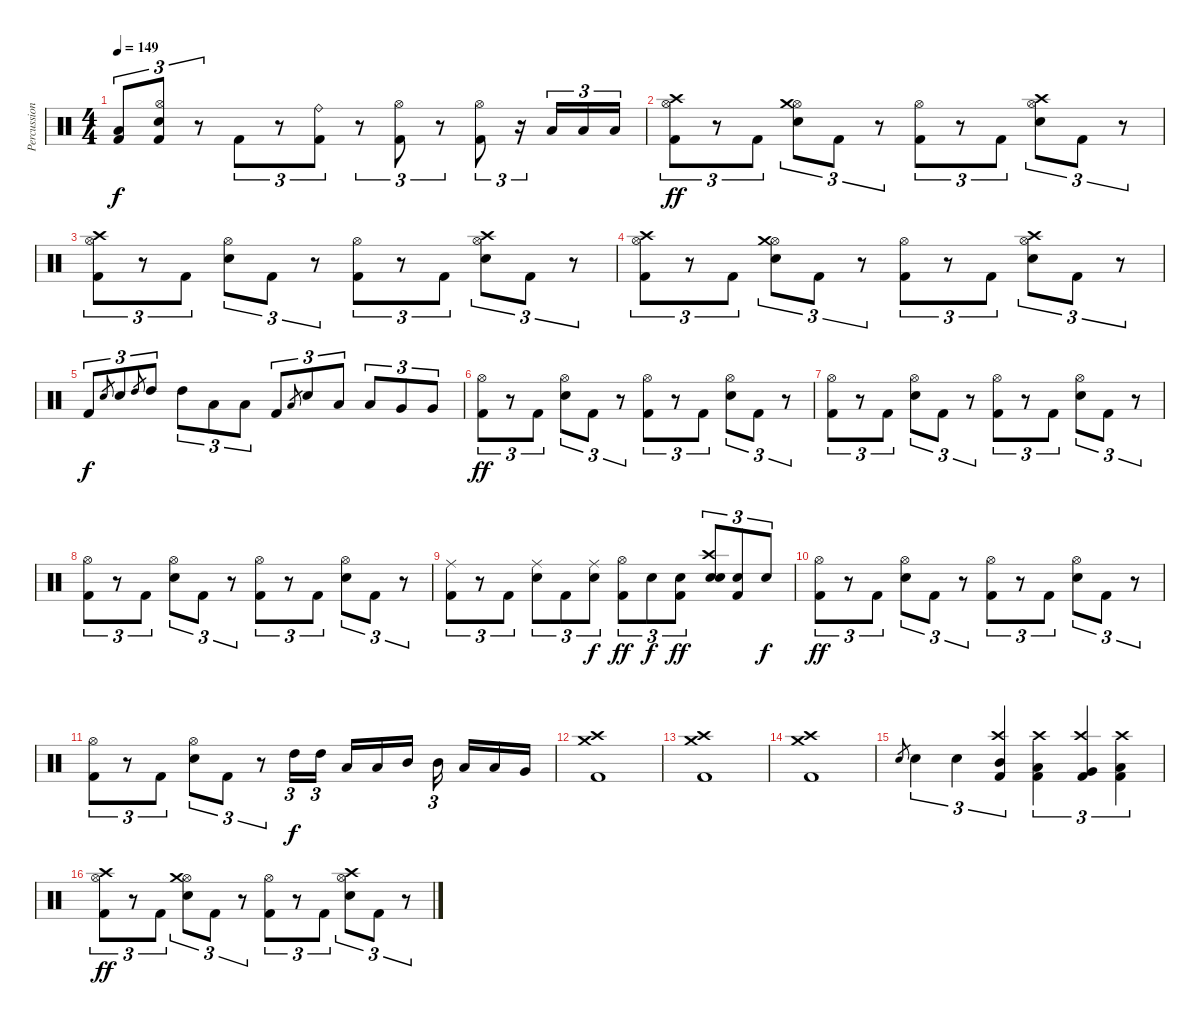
\track ("Percussion" "Percussion") {instrument percussion}
\staff {score}
\articulation defaults
\ts (4 4)
\tempo 149
\clef neutral
\ks c
("Kick (hit) 2" "Low Tom (hit)").8{tu (3 2) dy f} ("Hi-Hat (open)" "Kick (hit) 2" "Snare (hit) 2").8{tu (3 2)} r.8{tu (3 2)} "Kick (hit) 2".8{tu (3 2)} r.8{tu (3 2)} ("Ride (bell)" "Kick (hit) 2").8{tu (3 2)} r.8{tu (3 2)} ("Hi-Hat (open)" "Kick (hit) 2").8{tu (3 2)} r.8{tu (3 2)} ("Hi-Hat (open)" "Kick (hit) 2").8{tu (3 2)} r.16{tu (3 2)} "Low Tom (hit)".16{tu (3 2)} "Low Tom (hit)".16{tu (3 2)} "Low Tom (hit)".16{tu (3 2)} |
("Kick (hit) 2" "Hi-Hat (open)" "Crash high (hit)").8{tu (3 2) dy ff} r.8{tu (3 2)} "Kick (hit) 2".8{tu (3 2)} ("Electric Snare (hit)" "Hi-Hat (open)" "Crash medium (hit)").8{tu (3 2)} "Kick (hit) 2".8{tu (3 2)} r.8{tu (3 2)} ("Kick (hit) 2" "Hi-Hat (open)").8{tu (3 2)} r.8{tu (3 2)} "Kick (hit) 2".8{tu (3 2)} ("Electric Snare (hit)" "Hi-Hat (open)" "Crash high (hit)").8{tu (3 2)} "Kick (hit) 2".8{tu (3 2)} r.8{tu (3 2)} |
("Kick (hit) 2" "Hi-Hat (open)" "Crash high (hit)").8{tu (3 2)} r.8{tu (3 2)} "Kick (hit) 2".8{tu (3 2)} ("Electric Snare (hit)" "Hi-Hat (open)").8{tu (3 2)} "Kick (hit) 2".8{tu (3 2)} r.8{tu (3 2)} ("Kick (hit) 2" "Hi-Hat (open)").8{tu (3 2)} r.8{tu (3 2)} "Kick (hit) 2".8{tu (3 2)} ("Electric Snare (hit)" "Hi-Hat (open)" "Crash high (hit)").8{tu (3 2)} "Kick (hit) 2".8{tu (3 2)} r.8{tu (3 2)} |
("Kick (hit) 2" "Hi-Hat (open)" "Crash high (hit)").8{tu (3 2)} r.8{tu (3 2)} "Kick (hit) 2".8{tu (3 2)} ("Electric Snare (hit)" "Hi-Hat (open)" "Crash medium (hit)").8{tu (3 2)} "Kick (hit) 2".8{tu (3 2)} r.8{tu (3 2)} ("Kick (hit) 2" "Hi-Hat (open)").8{tu (3 2)} r.8{tu (3 2)} "Kick (hit) 2".8{tu (3 2)} ("Electric Snare (hit)" "Hi-Hat (open)" "Crash high (hit)").8{tu (3 2)} "Kick (hit) 2".8{tu (3 2)} r.8{tu (3 2)} |
"Kick (hit) 2".8{tu (3 2) dy f} "Electric Snare (hit)".8{gr} "Electric Snare (hit)".8{tu (3 2)} "High Tom (hit)".8{gr} "High Tom (hit)".8{tu (3 2)} "High Tom (hit)".8{tu (3 2)} "Low Tom (hit)".8{tu (3 2)} "Low Tom (hit)".8{tu (3 2)} "Kick (hit) 2".8{tu (3 2)} "Low Tom (hit)".8{gr} "Electric Snare (hit)".8{tu (3 2)} "Low Tom (hit)".8{tu (3 2)} "Low Tom (hit)".8{tu (3 2)} "Very Low Tom (hit)".8{tu (3 2)} "Very Low Tom (hit)".8{tu (3 2)} |
("Kick (hit) 2" "Hi-Hat (open)").8{tu (3 2) dy ff} r.8{tu (3 2)} "Kick (hit) 2".8{tu (3 2)} ("Snare (hit) 2" "Hi-Hat (open)").8{tu (3 2)} "Kick (hit) 2".8{tu (3 2)} r.8{tu (3 2)} ("Kick (hit) 2" "Hi-Hat (open)").8{tu (3 2)} r.8{tu (3 2)} "Kick (hit) 2".8{tu (3 2)} ("Snare (hit) 2" "Hi-Hat (open)").8{tu (3 2)} "Kick (hit) 2".8{tu (3 2)} r.8{tu (3 2)} |
("Kick (hit) 2" "Hi-Hat (open)").8{tu (3 2)} r.8{tu (3 2)} "Kick (hit) 2".8{tu (3 2)} ("Snare (hit) 2" "Hi-Hat (open)").8{tu (3 2)} "Kick (hit) 2".8{tu (3 2)} r.8{tu (3 2)} ("Kick (hit) 2" "Hi-Hat (open)").8{tu (3 2)} r.8{tu (3 2)} "Kick (hit) 2".8{tu (3 2)} ("Snare (hit) 2" "Hi-Hat (open)").8{tu (3 2)} "Kick (hit) 2".8{tu (3 2)} r.8{tu (3 2)} |
("Kick (hit) 2" "Hi-Hat (open)").8{tu (3 2)} r.8{tu (3 2)} "Kick (hit) 2".8{tu (3 2)} ("Snare (hit) 2" "Hi-Hat (open)").8{tu (3 2)} "Kick (hit) 2".8{tu (3 2)} r.8{tu (3 2)} ("Kick (hit) 2" "Hi-Hat (open)").8{tu (3 2)} r.8{tu (3 2)} "Kick (hit) 2".8{tu (3 2)} ("Snare (hit) 2" "Hi-Hat (open)").8{tu (3 2)} "Kick (hit) 2".8{tu (3 2)} r.8{tu (3 2)} |
("Kick (hit) 2" "Ride (middle)").8{tu (3 2)} r.8{tu (3 2)} "Kick (hit) 2".8{tu (3 2)} ("Electric Snare (hit)" "Ride (middle)").8{tu (3 2)} "Kick (hit) 2".8{tu (3 2)} ("Electric Snare (hit)" "Ride (middle)").8{tu (3 2) dy f} ("Kick (hit) 2" "Hi-Hat (open)").8{tu (3 2) dy ff} "Electric Snare (hit)".8{tu (3 2) dy f} ("Kick (hit) 2" "Electric Snare (hit)").8{tu (3 2) dy ff} ("Snare (hit) 2" "Electric Snare (hit)" "Crash high (hit)").8{tu (3 2)} ("Kick (hit) 2" "Electric Snare (hit)").8{tu (3 2)} "Electric Snare (hit)".8{tu (3 2) dy f} |
("Kick (hit) 2" "Hi-Hat (open)").8{tu (3 2) dy ff} r.8{tu (3 2)} "Kick (hit) 2".8{tu (3 2)} ("Snare (hit) 2" "Hi-Hat (open)").8{tu (3 2)} "Kick (hit) 2".8{tu (3 2)} r.8{tu (3 2)} ("Kick (hit) 2" "Hi-Hat (open)").8{tu (3 2)} r.8{tu (3 2)} "Kick (hit) 2".8{tu (3 2)} ("Snare (hit) 2" "Hi-Hat (open)").8{tu (3 2)} "Kick (hit) 2".8{tu (3 2)} r.8{tu (3 2)} |
("Kick (hit) 2" "Hi-Hat (open)").8{tu (3 2)} r.8{tu (3 2)} "Kick (hit) 2".8{tu (3 2)} ("Snare (hit) 2" "Hi-Hat (open)").8{tu (3 2)} "Kick (hit) 2".8{tu (3 2)} r.8{tu (3 2)} "High Tom (hit)".16{tu (3 2) dy f} "High Tom (hit)".16{tu (3 2) beam splitsecondary} "Low Tom (hit)".16 "Low Tom (hit)".16 "Mid Tom (hit)".16 "Mid Tom (hit)".16{tu (3 2) beam splitsecondary} "Low Tom (hit)".16 "Low Tom (hit)".16 "Very Low Tom (hit)".16 |
("Crash medium (hit)" "Crash high (hit)" "Kick (hit) 2").1 |
("Crash medium (hit)" "Crash high (hit)" "Kick (hit) 2").1 |
("Crash medium (hit)" "Crash high (hit)" "Kick (hit) 2").1 |
"Electric Snare (hit)".8{gr} "Electric Snare (hit)".4{tu (3 2)} "Electric Snare (hit)".4{tu (3 2)} ("Mid Tom (hit)" "Kick (hit) 2" "Crash high (hit)").4{tu (3 2)} ("Low Tom (hit)" "Kick (hit) 2" "Crash high (hit)").4{tu (3 2)} ("Very Low Tom (hit)" "Kick (hit) 2" "Crash high (hit)").4{tu (3 2)} ("Low Tom (hit)" "Kick (hit) 2" "Crash high (hit)").4{tu (3 2)} |
("Kick (hit) 2" "Hi-Hat (open)" "Crash high (hit)").8{tu (3 2) dy ff} r.8{tu (3 2)} "Kick (hit) 2".8{tu (3 2)} ("Electric Snare (hit)" "Hi-Hat (open)" "Crash medium (hit)").8{tu (3 2)} "Kick (hit) 2".8{tu (3 2)} r.8{tu (3 2)} ("Kick (hit) 2" "Hi-Hat (open)").8{tu (3 2)} r.8{tu (3 2)} "Kick (hit) 2".8{tu (3 2)} ("Electric Snare (hit)" "Hi-Hat (open)" "Crash high (hit)").8{tu (3 2)} "Kick (hit) 2".8{tu (3 2)} r.8{tu (3 2)}
